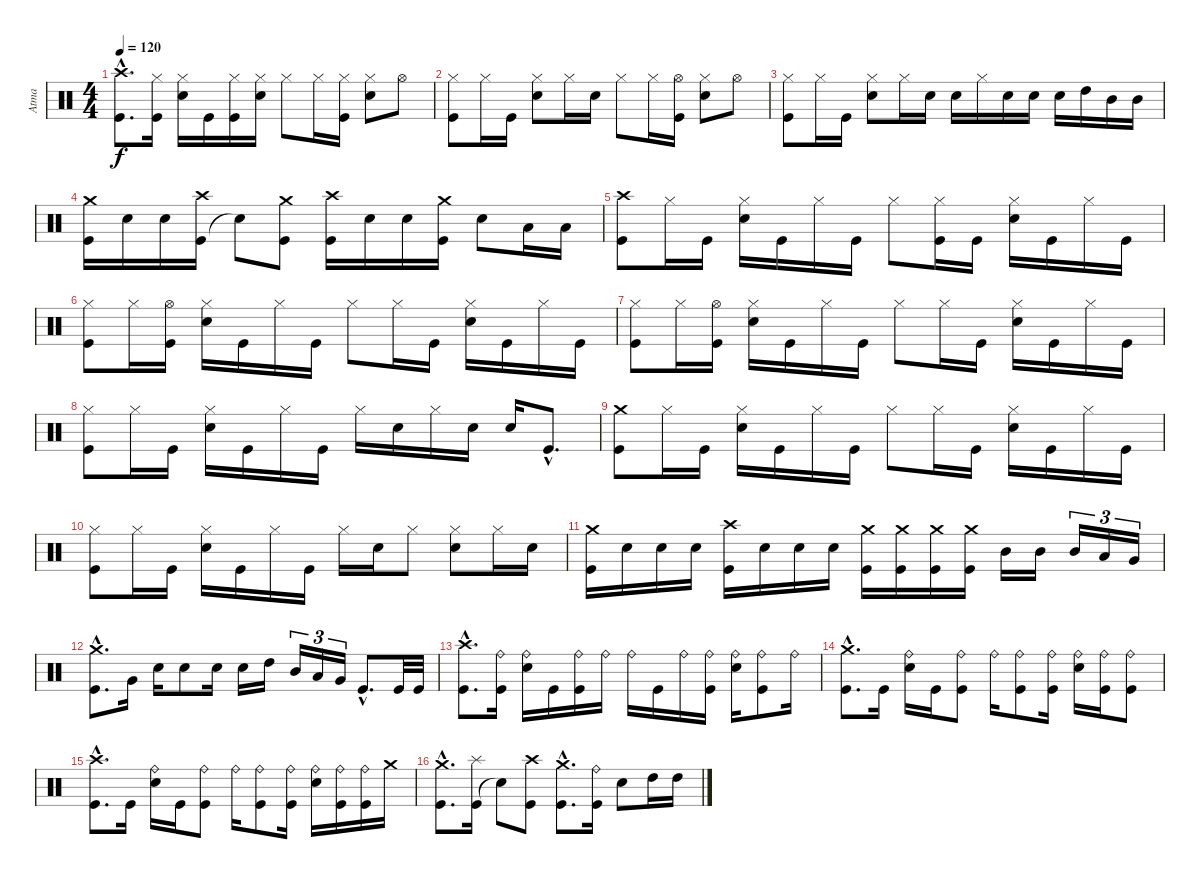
\track ("Atma" "Atma") {instrument percussion}
\staff {score}
\articulation defaults
\ts (4 4)
\tempo 120
\clef neutral
\ks c
("Kick (hit)"{hac} "Crash high (hit)"{hac}).8{d dy f} ("Kick (hit)" "Hi-Hat (closed)").16 ("Snare (hit) 2" "Hi-Hat (closed)").16 "Kick (hit)".16 ("Kick (hit)" "Hi-Hat (closed)").16 ("Snare (hit) 2" "Hi-Hat (closed)").16 "Hi-Hat (closed)".8 "Hi-Hat (closed)".16 ("Kick (hit)" "Hi-Hat (closed)").16 ("Snare (hit) 2" "Hi-Hat (closed)").8 "Hi-Hat (open)".8 |
("Kick (hit)" "Hi-Hat (closed)").8 "Hi-Hat (closed)".16 "Kick (hit)".16 ("Snare (hit) 2" "Hi-Hat (closed)").8 "Hi-Hat (closed)".16 "Snare (hit) 2".16 "Hi-Hat (closed)".8 "Hi-Hat (closed)".16 ("Kick (hit)" "Hi-Hat (open)").16 ("Snare (hit) 2" "Hi-Hat (closed)").8 "Hi-Hat (open)".8 |
("Kick (hit)" "Hi-Hat (closed)").8 "Hi-Hat (closed)".16 "Kick (hit)".16 ("Snare (hit) 2" "Hi-Hat (closed)").8 "Hi-Hat (closed)".16 "Snare (hit) 2".16 "Snare (hit) 2".16 "Hi-Hat (closed)".16 "Snare (hit) 2".16 "Snare (hit) 2".16 "Snare (hit) 2".16 "High Tom (hit)".16 "Mid Tom (hit)".16 "Mid Tom (hit)".16 |
("Kick (hit)" "Crash medium (hit)").16 "Snare (hit) 2".16 "Snare (hit) 2".16 ("Kick (hit)" "Crash high (hit)").16 "Snare (hit)"{t}.8 ("Kick (hit)" "Crash medium (hit)").8 ("Kick (hit)" "Crash high (hit)").16 "Snare (hit) 2".16 "Snare (hit) 2".16 ("Kick (hit)" "Crash medium (hit)").16 "Snare (hit) 2".8 "Low Tom (hit)".16 "Low Tom (hit)".16 |
("Kick (hit)" "Crash high (hit)").8 "Hi-Hat (closed)".16 "Kick (hit)".16 ("Snare (hit) 2" "Hi-Hat (closed)").16 "Kick (hit)".16 "Hi-Hat (closed)".16 "Kick (hit)".16 "Hi-Hat (closed)".8 ("Kick (hit)" "Hi-Hat (closed)").16 "Kick (hit)".16 ("Snare (hit) 2" "Hi-Hat (closed)").16 "Kick (hit)".16 "Hi-Hat (closed)".16 "Kick (hit)".16 |
("Kick (hit)" "Hi-Hat (closed)").8 "Hi-Hat (closed)".16 ("Kick (hit)" "Hi-Hat (open)").16 ("Snare (hit) 2" "Hi-Hat (closed)").16 "Kick (hit)".16 "Hi-Hat (closed)".16 "Kick (hit)".16 "Hi-Hat (closed)".8 "Hi-Hat (closed)".16 "Kick (hit)".16 ("Snare (hit) 2" "Hi-Hat (closed)").16 "Kick (hit)".16 "Hi-Hat (closed)".16 "Kick (hit)".16 |
("Kick (hit)" "Hi-Hat (closed)").8 "Hi-Hat (closed)".16 ("Kick (hit)" "Hi-Hat (open)").16 ("Snare (hit) 2" "Hi-Hat (closed)").16 "Kick (hit)".16 "Hi-Hat (closed)".16 "Kick (hit)".16 "Hi-Hat (closed)".8 "Hi-Hat (closed)".16 "Kick (hit)".16 ("Snare (hit) 2" "Hi-Hat (closed)").16 "Kick (hit)".16 "Hi-Hat (closed)".16 "Kick (hit)".16 |
("Kick (hit)" "Hi-Hat (closed)").8 "Hi-Hat (closed)".16 "Kick (hit)".16 ("Snare (hit) 2" "Hi-Hat (closed)").16 "Kick (hit)".16 "Hi-Hat (closed)".16 "Kick (hit)".16 "Hi-Hat (closed)".16 "Snare (hit) 2".16 "Hi-Hat (closed)".16 "Snare (hit) 2".16 "Snare (hit) 2".16 "Kick (hit)"{hac}.8{d} |
("Kick (hit)" "Crash medium (hit)").8 "Hi-Hat (closed)".16 "Kick (hit)".16 ("Snare (hit) 2" "Hi-Hat (closed)").16 "Kick (hit)".16 "Hi-Hat (closed)".16 "Kick (hit)".16 "Hi-Hat (closed)".8 "Hi-Hat (closed)".16 "Kick (hit)".16 ("Snare (hit) 2" "Hi-Hat (closed)").16 "Kick (hit)".16 "Hi-Hat (closed)".16 "Kick (hit)".16 |
("Kick (hit)" "Hi-Hat (closed)").8 "Hi-Hat (closed)".16 "Kick (hit)".16 ("Snare (hit) 2" "Hi-Hat (closed)").16 "Kick (hit)".16 "Hi-Hat (closed)".16 "Kick (hit)".16 "Hi-Hat (closed)".16 "Snare (hit) 2".16 "Hi-Hat (closed)".8 ("Snare (hit) 2" "Hi-Hat (closed)").8 "Hi-Hat (closed)".16 "Snare (hit) 2".16 |
("Kick (hit)" "Crash medium (hit)").16 "Snare (hit) 2".16 "Snare (hit) 2".16 "Snare (hit) 2".16 ("Kick (hit)" "Crash high (hit)").16 "Snare (hit) 2".16 "Snare (hit) 2".16 "Snare (hit) 2".16 ("Kick (hit)" "Crash medium (hit)").16 ("Kick (hit)" "Crash medium (hit)").16 ("Kick (hit)" "Crash medium (hit)").16 ("Kick (hit)" "Crash medium (hit)").16 "Mid Tom (hit)".16 "Mid Tom (hit)".16 "Mid Tom (hit)".16{tu (3 2)} "Low Tom (hit)".16{tu (3 2)} "Very Low Tom (hit)".16{tu (3 2)} |
("Kick (hit)"{hac} "Crash medium (hit)"{hac}).8{d} "Very Low Tom (hit)".16 "Snare (hit) 2".16 "Snare (hit) 2".8 "Snare (hit) 2".16 "Snare (hit) 2".16 "High Tom (hit)".16 "Mid Tom (hit)".16{tu (3 2)} "Low Tom (hit)".16{tu (3 2)} "Very Low Tom (hit)".16{tu (3 2)} "Kick (hit)"{hac}.8{d} "Kick (hit)".32 "Kick (hit)".32 |
("Kick (hit)"{hac} "Crash high (hit)"{hac}).8{d} ("Kick (hit)" "Ride (bell)").16 ("Snare (hit) 2" "Ride (bell)").16 "Kick (hit)".16 ("Kick (hit)" "Ride (bell)").16 "Ride (bell)".16 "Ride (bell)".16 "Kick (hit)".16 "Ride (bell)".16 ("Kick (hit)" "Ride (bell)").16 ("Snare (hit) 2" "Ride (bell)").16 ("Kick (hit)" "Ride (bell)").8 "Ride (bell)".16 |
("Kick (hit)"{hac} "Crash medium (hit)"{hac}).8{d} "Kick (hit)".16 ("Snare (hit) 2" "Ride (bell)").16 "Kick (hit)".16 ("Kick (hit)" "Ride (bell)").8 "Ride (bell)".16 ("Kick (hit)" "Ride (bell)").8 ("Kick (hit)" "Ride (bell)").16 ("Snare (hit) 2" "Ride (bell)").16 ("Kick (hit)" "Ride (bell)").16 ("Kick (hit)" "Ride (bell)").8 |
("Kick (hit)"{hac} "Crash high (hit)"{hac}).8{d} "Kick (hit)".16 ("Snare (hit) 2" "Ride (bell)").16 "Kick (hit)".16 ("Kick (hit)" "Ride (bell)").8 "Ride (bell)".16 ("Kick (hit)" "Ride (bell)").8 ("Kick (hit)" "Ride (bell)").16 ("Snare (hit) 2" "Ride (bell)").16 ("Kick (hit)" "Ride (bell)").16 ("Kick (hit)" "Ride (bell)").16 "Crash medium (hit)".16 |
("Kick (hit)"{hac} "Crash medium (hit)"{hac}).8{d} ("Kick (hit)" "Splash (hit)").16 "Snare (hit)"{t}.8 ("Kick (hit)" "Crash high (hit)").8 ("Kick (hit)"{hac} "Crash medium (hit)"{hac}).8{d} ("Kick (hit)" "Ride (bell)").16 "Snare (hit) 2".8 "High Tom (hit)".16 "High Tom (hit)".16
